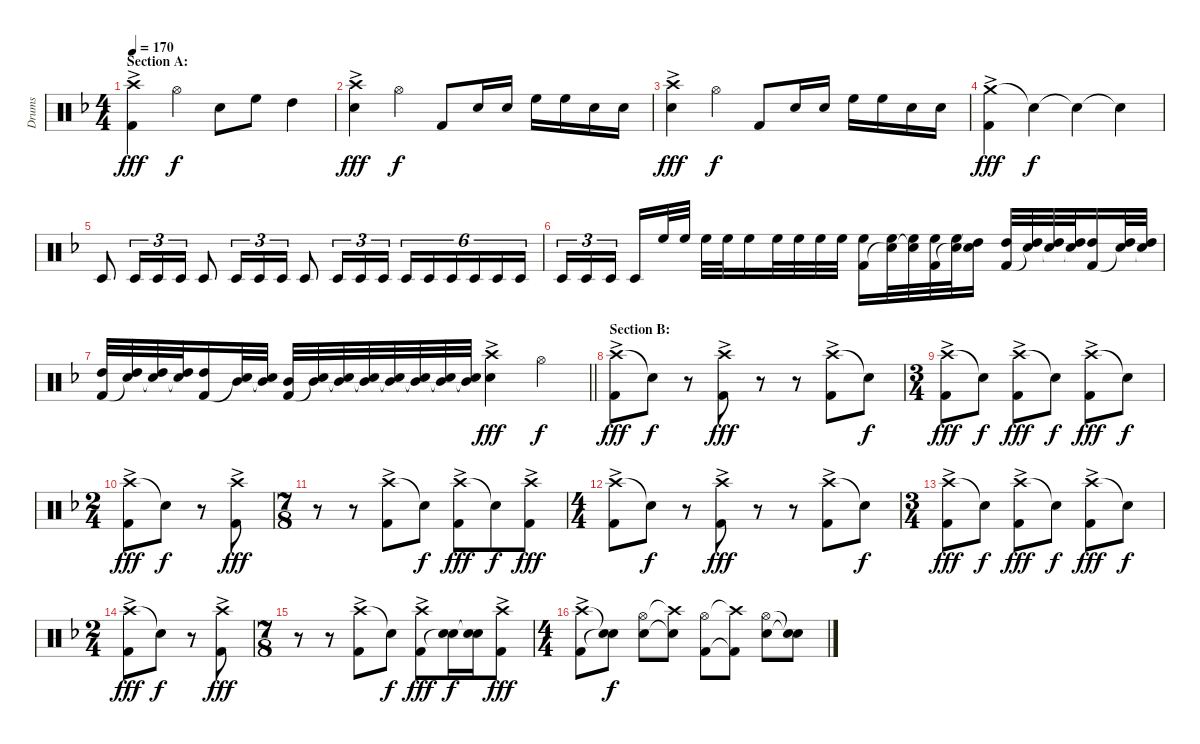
\track ("Drums" "Drums") {instrument percussion}
\staff {score}
\articulation defaults
\ts (4 4)
\section ("" "Section A:")
\tempo 170
\tempo 125
\tempo 170
\clef neutral
\ks f
("Crash high (hit)"{ac} "Kick (hit) 2").4{dy fff volume 14} "Hi-Hat (open)".4{dy f} "Snare (hit) 2".8 "High Floor Tom (hit)".8 "High Tom (hit)".4 |
("Crash high (hit)"{ac} "Snare (hit) 2").4{dy fff} "Hi-Hat (open)".4{dy f} "Kick (hit) 2".8 "Snare (hit) 2".16 "Snare (hit) 2".16 "High Floor Tom (hit)".16 "High Floor Tom (hit)".16 "Snare (hit) 2".16 "Snare (hit) 2".16 |
("Crash high (hit)"{ac} "Snare (hit) 2").4{dy fff} "Hi-Hat (open)".4{dy f} "Kick (hit) 2".8 "Snare (hit) 2".16 "Snare (hit) 2".16 "High Floor Tom (hit)".16 "High Floor Tom (hit)".16 "Snare (hit) 2".16 "Snare (hit) 2".16 |
("Crash medium (hit)"{ac} "Kick (hit) 2").4{dy fff} "Snare (hit)"{t}.4{dy f} "Snare (hit)"{t}.4 "Snare (hit)"{t}.4 |
"Timbale low (hit)".8 "Timbale low (hit)".16{tu (3 2)} "Timbale low (hit)".16{tu (3 2)} "Timbale low (hit)".16{tu (3 2)} "Timbale low (hit)".8 "Timbale low (hit)".16{tu (3 2)} "Timbale low (hit)".16{tu (3 2)} "Timbale low (hit)".16{tu (3 2)} "Timbale low (hit)".8 "Timbale low (hit)".16{tu (3 2)} "Timbale low (hit)".16{tu (3 2)} "Timbale low (hit)".16{tu (3 2)} "Timbale low (hit)".16{tu (6 4)} "Timbale low (hit)".16{tu (6 4)} "Timbale low (hit)".16{tu (6 4)} "Timbale low (hit)".16{tu (6 4)} "Timbale low (hit)".16{tu (6 4)} "Timbale low (hit)".16{tu (6 4)} |
"Timbale low (hit)".16{tu (3 2)} "Timbale low (hit)".16{tu (3 2)} "Timbale low (hit)".16{tu (3 2)} "Timbale low (hit)".16 "High Floor Tom (hit)".32 "High Floor Tom (hit)".32 "High Floor Tom (hit)".32 "High Floor Tom (hit)".32 "High Floor Tom (hit)".16 "High Floor Tom (hit)".32 "High Floor Tom (hit)".32 "High Floor Tom (hit)".32 "High Floor Tom (hit)".32 ("High Floor Tom (hit)" "Kick (hit) 2").16 ("High Floor Tom (hit)" "Snare (hit)"{t}).32 ("High Floor Tom (hit)" "Snare (hit)"{t}).32 ("High Floor Tom (hit)" "Kick (hit) 2").32 ("High Floor Tom (hit)" "Snare (hit)"{t}).32 ("High Tom (hit)" "Snare (hit)"{t}).16 ("High Tom (hit)" "Kick (hit) 2").32 ("High Tom (hit)" "Snare (hit)"{t}).32 ("High Tom (hit)" "Snare (hit)"{t}).32 ("High Tom (hit)" "Snare (hit)"{t}).32 ("High Tom (hit)" "Kick (hit) 2").16 ("High Tom (hit)" "Snare (hit)"{t}).32 ("High Tom (hit)" "Snare (hit)"{t}).32 |
\barLineRight lightlight
("High Tom (hit)" "Kick (hit) 2").32 ("High Tom (hit)" "Snare (hit)"{t}).32 ("High Tom (hit)" "Snare (hit)"{t}).32 ("High Tom (hit)" "Snare (hit)"{t}).32 ("High Tom (hit)" "Kick (hit) 2").16 ("Mid Tom (hit)" "Snare (hit)"{t}).32 ("Mid Tom (hit)" "Snare (hit)"{t}).32 ("Mid Tom (hit)" "Kick (hit) 2").32 ("Mid Tom (hit)" "Snare (hit)"{t}).32 ("Mid Tom (hit)" "Snare (hit)"{t}).32 ("Mid Tom (hit)" "Snare (hit)"{t}).32 ("Mid Tom (hit)" "Snare (hit)"{t}).32 ("Mid Tom (hit)" "Snare (hit)"{t}).32 ("Mid Tom (hit)" "Snare (hit)"{t}).32 ("Mid Tom (hit)" "Snare (hit)"{t}).32 ("Crash high (hit)"{ac} "Snare (hit) 2").4{dy fff} "Hi-Hat (open)".4{dy f} |
\section ("" "Section B:")
("Crash high (hit)"{ac} "Kick (hit) 2").8{dy fff} "Snare (hit)"{t}.8{dy f} r.8 ("Crash high (hit)"{ac} "Kick (hit) 2").8{dy fff} r.8 r.8 ("Crash high (hit)"{ac} "Kick (hit) 2").8 "Snare (hit)"{t}.8{dy f} |
\ts (3 4)
("Crash high (hit)"{ac} "Kick (hit) 2").8{dy fff} "Snare (hit)"{t}.8{dy f} ("Crash high (hit)"{ac} "Kick (hit) 2").8{dy fff} "Snare (hit)"{t}.8{dy f} ("Crash high (hit)"{ac} "Kick (hit) 2").8{dy fff} "Snare (hit)"{t}.8{dy f} |
\ts (2 4)
("Crash high (hit)"{ac} "Kick (hit) 2").8{dy fff} "Snare (hit)"{t}.8{dy f} r.8 ("Crash high (hit)"{ac} "Kick (hit) 2").8{dy fff} |
\ts (7 8)
r.8 r.8 ("Crash high (hit)"{ac} "Kick (hit) 2").8 "Snare (hit)"{t}.8{dy f} ("Crash high (hit)"{ac} "Kick (hit) 2").8{dy fff} "Snare (hit)"{t}.8{dy f} ("Crash high (hit)"{ac} "Kick (hit) 2").8{dy fff} |
\ts (4 4)
("Crash high (hit)"{ac} "Kick (hit) 2").8 "Snare (hit)"{t}.8{dy f} r.8 ("Crash high (hit)"{ac} "Kick (hit) 2").8{dy fff} r.8 r.8 ("Crash high (hit)"{ac} "Kick (hit) 2").8 "Snare (hit)"{t}.8{dy f} |
\ts (3 4)
("Crash high (hit)"{ac} "Kick (hit) 2").8{dy fff} "Snare (hit)"{t}.8{dy f} ("Crash high (hit)"{ac} "Kick (hit) 2").8{dy fff} "Snare (hit)"{t}.8{dy f} ("Crash high (hit)"{ac} "Kick (hit) 2").8{dy fff} "Snare (hit)"{t}.8{dy f} |
\ts (2 4)
("Crash high (hit)"{ac} "Kick (hit) 2").8{dy fff} "Snare (hit)"{t}.8{dy f} r.8 ("Crash high (hit)"{ac} "Kick (hit) 2").8{dy fff} |
\ts (7 8)
r.8 r.8 ("Crash high (hit)"{ac} "Kick (hit) 2").8 "Snare (hit)"{t}.8{dy f} ("Crash high (hit)"{ac} "Kick (hit) 2").8{dy fff} ("Snare (hit) 2" "Snare (hit)"{t}).16{dy f} ("Snare (hit) 2" "Snare (hit)"{t}).16 ("Crash high (hit)"{ac} "Kick (hit) 2").8{dy fff} |
\ts (4 4)
("Crash high (hit)"{ac} "Kick (hit) 2").8 ("Snare (hit)"{t} "Snare (hit)"{t}).8{dy f} ("Hi-Hat (open)" "Snare (hit) 2").8 ("Crash high (hit)"{t} "Snare (hit)"{t}).8 ("Hi-Hat (open)" "Kick (hit) 2").8 ("Crash high (hit)"{t} "Kick (hit) 2"{t}).8 ("Hi-Hat (open)" "Snare (hit) 2").8 ("Snare (hit)"{t} "Snare (hit)"{t}).8
